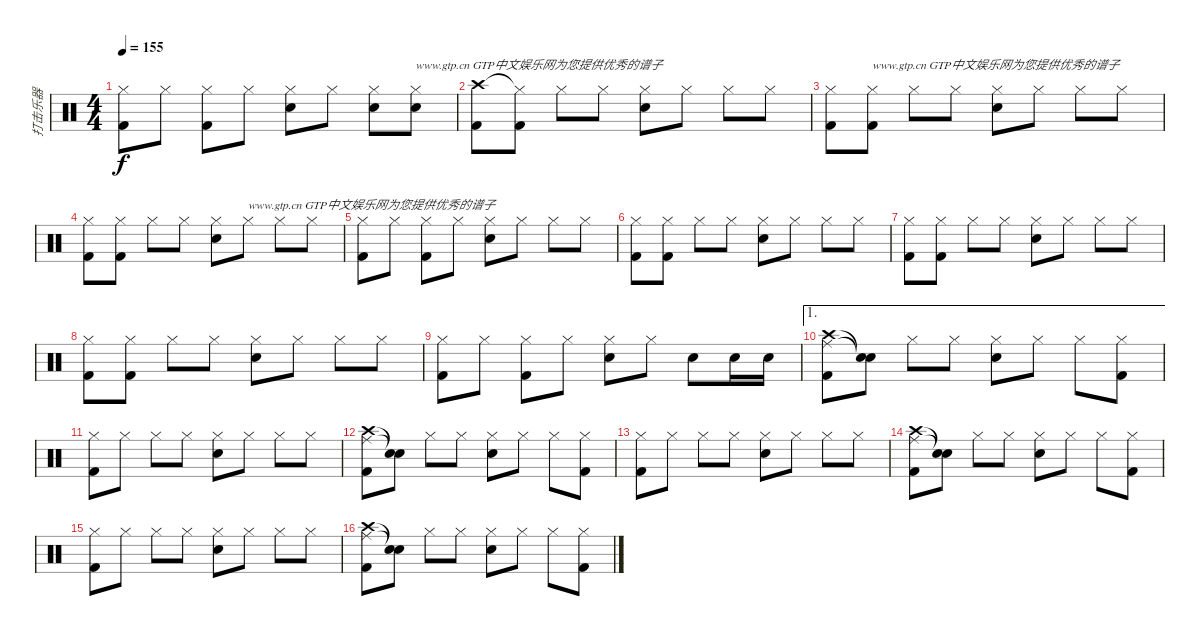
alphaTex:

\track ("打击乐器" "打击乐器") {instrument percussion}
\staff {score}
\articulation defaults
\ts (4 4)
\tempo 155
\clef neutral
\ks c
("Hi-Hat (closed)" "Kick (hit) 2").8{dy f} "Hi-Hat (closed)".8 ("Hi-Hat (closed)" "Kick (hit) 2").8 "Hi-Hat (closed)".8 ("Hi-Hat (closed)" "Snare (hit) 2").8 "Hi-Hat (closed)".8 ("Hi-Hat (closed)" "Snare (hit) 2").8 ("Hi-Hat (closed)" "Snare (hit) 2").8{txt "www.gtp.cn GTP中文娱乐网为您提供优秀的谱子"} |
("Crash high (hit)" "Kick (hit) 2").8 ("Hi-Hat (closed)"{t} "Kick (hit) 2").8 "Hi-Hat (closed)".8 "Hi-Hat (closed)".8 ("Hi-Hat (closed)" "Snare (hit) 2").8 "Hi-Hat (closed)".8 "Hi-Hat (closed)".8 "Hi-Hat (closed)".8 |
("Hi-Hat (closed)" "Kick (hit) 2").8 ("Hi-Hat (closed)" "Kick (hit) 2").8{txt "www.gtp.cn GTP中文娱乐网为您提供优秀的谱子"} "Hi-Hat (closed)".8 "Hi-Hat (closed)".8 ("Hi-Hat (closed)" "Snare (hit) 2").8 "Hi-Hat (closed)".8 "Hi-Hat (closed)".8 "Hi-Hat (closed)".8 |
("Hi-Hat (closed)" "Kick (hit) 2").8 ("Hi-Hat (closed)" "Kick (hit) 2").8 "Hi-Hat (closed)".8 "Hi-Hat (closed)".8 ("Hi-Hat (closed)" "Snare (hit) 2").8 "Hi-Hat (closed)".8{txt "www.gtp.cn GTP中文娱乐网为您提供优秀的谱子"} "Hi-Hat (closed)".8 "Hi-Hat (closed)".8 |
("Hi-Hat (closed)" "Kick (hit) 2").8 "Hi-Hat (closed)".8 ("Hi-Hat (closed)" "Kick (hit) 2").8 "Hi-Hat (closed)".8 ("Hi-Hat (closed)" "Snare (hit) 2").8 "Hi-Hat (closed)".8 "Hi-Hat (closed)".8 "Hi-Hat (closed)".8 |
("Hi-Hat (closed)" "Kick (hit) 2").8 ("Hi-Hat (closed)" "Kick (hit) 2").8 "Hi-Hat (closed)".8 "Hi-Hat (closed)".8 ("Hi-Hat (closed)" "Snare (hit) 2").8 "Hi-Hat (closed)".8 "Hi-Hat (closed)".8 "Hi-Hat (closed)".8 |
("Hi-Hat (closed)" "Kick (hit) 2").8 ("Hi-Hat (closed)" "Kick (hit) 2").8 "Hi-Hat (closed)".8 "Hi-Hat (closed)".8 ("Hi-Hat (closed)" "Snare (hit) 2").8 "Hi-Hat (closed)".8 "Hi-Hat (closed)".8 "Hi-Hat (closed)".8 |
("Hi-Hat (closed)" "Kick (hit) 2").8 ("Hi-Hat (closed)" "Kick (hit) 2").8 "Hi-Hat (closed)".8 "Hi-Hat (closed)".8 ("Hi-Hat (closed)" "Snare (hit) 2").8 "Hi-Hat (closed)".8 "Hi-Hat (closed)".8 "Hi-Hat (closed)".8 |
("Hi-Hat (closed)" "Kick (hit) 2").8 "Hi-Hat (closed)".8 ("Hi-Hat (closed)" "Kick (hit) 2").8 "Hi-Hat (closed)".8 ("Hi-Hat (closed)" "Snare (hit) 2").8 "Hi-Hat (closed)".8 "Snare (hit) 2".8 "Snare (hit) 2".16 "Snare (hit) 2".16 |
\ae 1
("Crash high (hit)" "Ride (middle)" "Kick (hit) 2").8 ("Snare (hit)"{t} "Snare (hit)"{t}).8 "Hi-Hat (closed)".8 "Hi-Hat (closed)".8 ("Hi-Hat (closed)" "Snare (hit) 2").8 "Hi-Hat (closed)".8 "Hi-Hat (closed)".8 ("Hi-Hat (closed)" "Kick (hit) 2").8 |
("Hi-Hat (closed)" "Kick (hit) 2").8 "Hi-Hat (closed)".8 "Hi-Hat (closed)".8 "Hi-Hat (closed)".8 ("Hi-Hat (closed)" "Snare (hit) 2").8 "Hi-Hat (closed)".8 "Hi-Hat (closed)".8 "Hi-Hat (closed)".8 |
("Crash high (hit)" "Ride (middle)" "Kick (hit) 2").8 ("Snare (hit)"{t} "Snare (hit)"{t}).8 "Hi-Hat (closed)".8 "Hi-Hat (closed)".8 ("Hi-Hat (closed)" "Snare (hit) 2").8 "Hi-Hat (closed)".8 "Hi-Hat (closed)".8 ("Hi-Hat (closed)" "Kick (hit) 2").8 |
("Hi-Hat (closed)" "Kick (hit) 2").8 "Hi-Hat (closed)".8 "Hi-Hat (closed)".8 "Hi-Hat (closed)".8 ("Hi-Hat (closed)" "Snare (hit) 2").8 "Hi-Hat (closed)".8 "Hi-Hat (closed)".8 "Hi-Hat (closed)".8 |
("Crash high (hit)" "Ride (middle)" "Kick (hit) 2").8 ("Snare (hit)"{t} "Snare (hit)"{t}).8 "Hi-Hat (closed)".8 "Hi-Hat (closed)".8 ("Hi-Hat (closed)" "Snare (hit) 2").8 "Hi-Hat (closed)".8 "Hi-Hat (closed)".8 ("Hi-Hat (closed)" "Kick (hit) 2").8 |
("Hi-Hat (closed)" "Kick (hit) 2").8 "Hi-Hat (closed)".8 "Hi-Hat (closed)".8 "Hi-Hat (closed)".8 ("Hi-Hat (closed)" "Snare (hit) 2").8 "Hi-Hat (closed)".8 "Hi-Hat (closed)".8 "Hi-Hat (closed)".8 |
("Crash high (hit)" "Ride (middle)" "Kick (hit) 2").8 ("Snare (hit)"{t} "Snare (hit)"{t}).8 "Hi-Hat (closed)".8 "Hi-Hat (closed)".8 ("Hi-Hat (closed)" "Snare (hit) 2").8 "Hi-Hat (closed)".8 "Hi-Hat (closed)".8 ("Hi-Hat (closed)" "Kick (hit) 2").8
